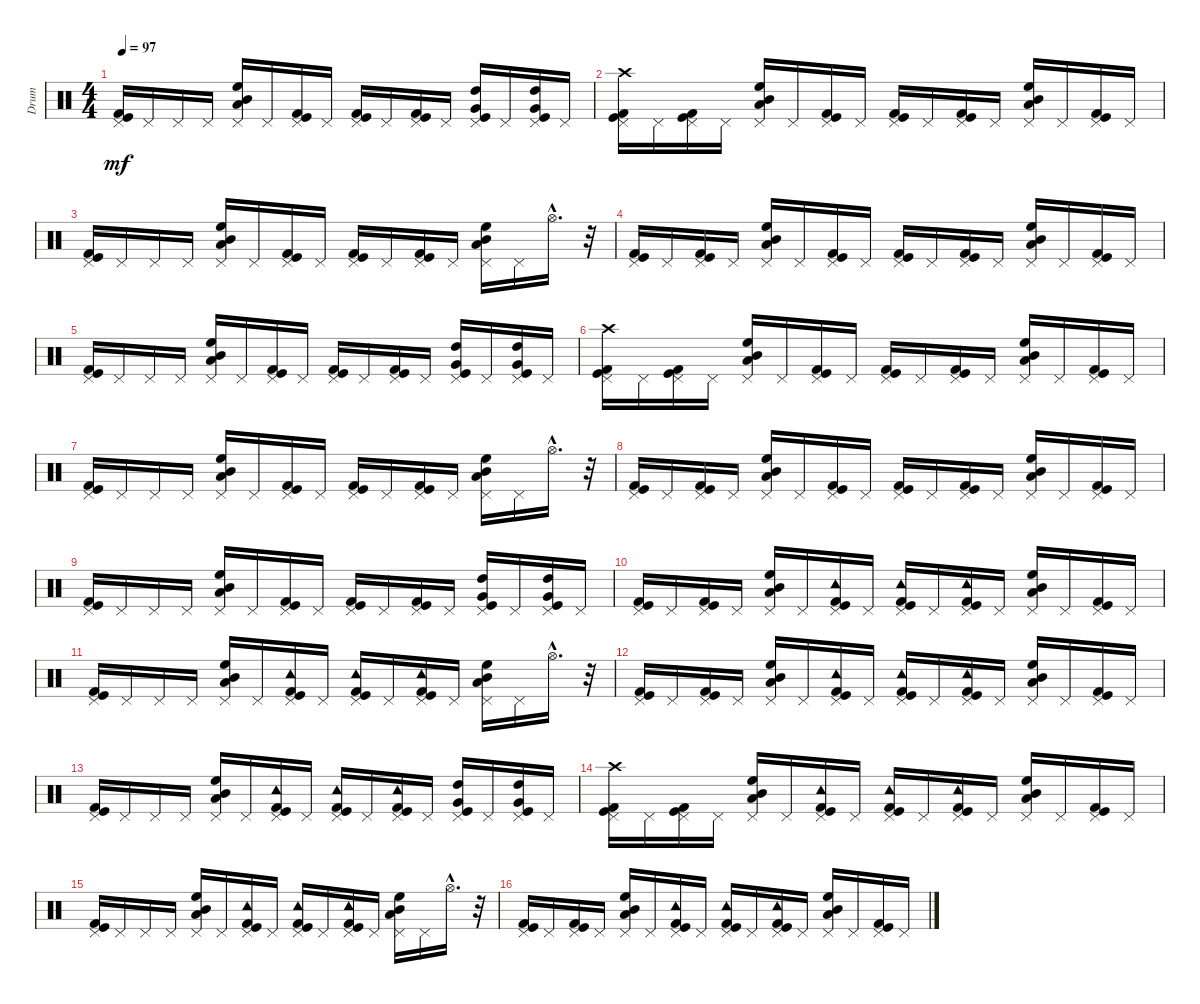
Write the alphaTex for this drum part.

\track ("Drum" "Drum") {instrument percussion}
\staff {score}
\articulation defaults
\ts (4 4)
\tempo 97
\clef neutral
\ks c
("Pedal Hi-Hat (hit)" "Kick (hit)" "Kick (hit) 2").16{dy mf} "Pedal Hi-Hat (hit)".16 "Pedal Hi-Hat (hit)".16 "Pedal Hi-Hat (hit)".16 ("Pedal Hi-Hat (hit)" "High Floor Tom (hit)" "Mid Tom (hit)" "Low Tom (hit)").16 "Pedal Hi-Hat (hit)".16 ("Pedal Hi-Hat (hit)" "Kick (hit)" "Kick (hit) 2").16 "Pedal Hi-Hat (hit)".16 ("Pedal Hi-Hat (hit)" "Kick (hit)" "Kick (hit) 2").16 "Pedal Hi-Hat (hit)".16 ("Pedal Hi-Hat (hit)" "Kick (hit)" "Kick (hit) 2").16 "Pedal Hi-Hat (hit)".16 ("Kick (hit)" "Very Low Tom (hit)" "High Tom (hit)" "Pedal Hi-Hat (hit)").16 "Pedal Hi-Hat (hit)".16 ("Kick (hit)" "Very Low Tom (hit)" "High Tom (hit)" "Pedal Hi-Hat (hit)").16 "Pedal Hi-Hat (hit)".16 |
("Crash high (hit)" "Kick (hit) 2" "Kick (hit)" "Pedal Hi-Hat (hit)").16 "Pedal Hi-Hat (hit)".16 ("Kick (hit) 2" "Kick (hit)" "Pedal Hi-Hat (hit)").16 "Pedal Hi-Hat (hit)".16 ("Low Tom (hit)" "Mid Tom (hit)" "High Floor Tom (hit)" "Pedal Hi-Hat (hit)").16 "Pedal Hi-Hat (hit)".16 ("Kick (hit) 2" "Kick (hit)" "Pedal Hi-Hat (hit)").16 "Pedal Hi-Hat (hit)".16 ("Kick (hit) 2" "Kick (hit)" "Pedal Hi-Hat (hit)").16 "Pedal Hi-Hat (hit)".16 ("Kick (hit) 2" "Kick (hit)" "Pedal Hi-Hat (hit)").16 "Pedal Hi-Hat (hit)".16 ("Low Tom (hit)" "High Floor Tom (hit)" "Mid Tom (hit)" "Pedal Hi-Hat (hit)").16 "Pedal Hi-Hat (hit)".16 ("Kick (hit)" "Kick (hit) 2" "Pedal Hi-Hat (hit)").16 "Pedal Hi-Hat (hit)".16 |
("Pedal Hi-Hat (hit)" "Kick (hit)" "Kick (hit) 2").16 "Pedal Hi-Hat (hit)".16 "Pedal Hi-Hat (hit)".16 "Pedal Hi-Hat (hit)".16 ("Pedal Hi-Hat (hit)" "High Floor Tom (hit)" "Mid Tom (hit)" "Low Tom (hit)").16 "Pedal Hi-Hat (hit)".16 ("Pedal Hi-Hat (hit)" "Kick (hit)" "Kick (hit) 2").16 "Pedal Hi-Hat (hit)".16 ("Pedal Hi-Hat (hit)" "Kick (hit)" "Kick (hit) 2").16 "Pedal Hi-Hat (hit)".16 ("Pedal Hi-Hat (hit)" "Kick (hit)" "Kick (hit) 2").16 "Pedal Hi-Hat (hit)".16 ("Pedal Hi-Hat (hit)" "Mid Tom (hit)" "High Floor Tom (hit)" "Low Tom (hit)").16 "Pedal Hi-Hat (hit)".16 "Hi-Hat (open)"{hac}.16{d} r.32 |
("Pedal Hi-Hat (hit)" "Kick (hit)" "Kick (hit) 2").16 "Pedal Hi-Hat (hit)".16 ("Pedal Hi-Hat (hit)" "Kick (hit)" "Kick (hit) 2").16 "Pedal Hi-Hat (hit)".16 ("Pedal Hi-Hat (hit)" "High Floor Tom (hit)" "Mid Tom (hit)" "Low Tom (hit)").16 "Pedal Hi-Hat (hit)".16 ("Pedal Hi-Hat (hit)" "Kick (hit)" "Kick (hit) 2").16 "Pedal Hi-Hat (hit)".16 ("Pedal Hi-Hat (hit)" "Kick (hit)" "Kick (hit) 2").16 "Pedal Hi-Hat (hit)".16 ("Pedal Hi-Hat (hit)" "Kick (hit)" "Kick (hit) 2").16 "Pedal Hi-Hat (hit)".16 ("Pedal Hi-Hat (hit)" "Mid Tom (hit)" "High Floor Tom (hit)" "Low Tom (hit)").16 "Pedal Hi-Hat (hit)".16 ("Pedal Hi-Hat (hit)" "Kick (hit) 2" "Kick (hit)").16 "Pedal Hi-Hat (hit)".16 |
("Kick (hit) 2" "Kick (hit)" "Pedal Hi-Hat (hit)").16 "Pedal Hi-Hat (hit)".16 "Pedal Hi-Hat (hit)".16 "Pedal Hi-Hat (hit)".16 ("Low Tom (hit)" "Mid Tom (hit)" "High Floor Tom (hit)" "Pedal Hi-Hat (hit)").16 "Pedal Hi-Hat (hit)".16 ("Kick (hit) 2" "Kick (hit)" "Pedal Hi-Hat (hit)").16 "Pedal Hi-Hat (hit)".16 ("Kick (hit) 2" "Kick (hit)" "Pedal Hi-Hat (hit)").16 "Pedal Hi-Hat (hit)".16 ("Kick (hit) 2" "Kick (hit)" "Pedal Hi-Hat (hit)").16 "Pedal Hi-Hat (hit)".16 ("Pedal Hi-Hat (hit)" "High Tom (hit)" "Very Low Tom (hit)" "Kick (hit)").16 "Pedal Hi-Hat (hit)".16 ("Pedal Hi-Hat (hit)" "High Tom (hit)" "Very Low Tom (hit)" "Kick (hit)").16 "Pedal Hi-Hat (hit)".16 |
("Kick (hit) 2" "Kick (hit)" "Pedal Hi-Hat (hit)" "Crash high (hit)").16 "Pedal Hi-Hat (hit)".16 ("Kick (hit) 2" "Kick (hit)" "Pedal Hi-Hat (hit)").16 "Pedal Hi-Hat (hit)".16 ("Low Tom (hit)" "Mid Tom (hit)" "High Floor Tom (hit)" "Pedal Hi-Hat (hit)").16 "Pedal Hi-Hat (hit)".16 ("Kick (hit) 2" "Kick (hit)" "Pedal Hi-Hat (hit)").16 "Pedal Hi-Hat (hit)".16 ("Kick (hit) 2" "Kick (hit)" "Pedal Hi-Hat (hit)").16 "Pedal Hi-Hat (hit)".16 ("Kick (hit) 2" "Kick (hit)" "Pedal Hi-Hat (hit)").16 "Pedal Hi-Hat (hit)".16 ("Low Tom (hit)" "High Floor Tom (hit)" "Mid Tom (hit)" "Pedal Hi-Hat (hit)").16 "Pedal Hi-Hat (hit)".16 ("Kick (hit)" "Kick (hit) 2" "Pedal Hi-Hat (hit)").16 "Pedal Hi-Hat (hit)".16 |
("Pedal Hi-Hat (hit)" "Kick (hit)" "Kick (hit) 2").16 "Pedal Hi-Hat (hit)".16 "Pedal Hi-Hat (hit)".16 "Pedal Hi-Hat (hit)".16 ("Pedal Hi-Hat (hit)" "High Floor Tom (hit)" "Mid Tom (hit)" "Low Tom (hit)").16 "Pedal Hi-Hat (hit)".16 ("Pedal Hi-Hat (hit)" "Kick (hit)" "Kick (hit) 2").16 "Pedal Hi-Hat (hit)".16 ("Pedal Hi-Hat (hit)" "Kick (hit)" "Kick (hit) 2").16 "Pedal Hi-Hat (hit)".16 ("Pedal Hi-Hat (hit)" "Kick (hit)" "Kick (hit) 2").16 "Pedal Hi-Hat (hit)".16 ("Pedal Hi-Hat (hit)" "Mid Tom (hit)" "High Floor Tom (hit)" "Low Tom (hit)").16 "Pedal Hi-Hat (hit)".16 "Hi-Hat (open)"{hac}.16{d} r.32 |
("Pedal Hi-Hat (hit)" "Kick (hit)" "Kick (hit) 2").16 "Pedal Hi-Hat (hit)".16 ("Pedal Hi-Hat (hit)" "Kick (hit)" "Kick (hit) 2").16 "Pedal Hi-Hat (hit)".16 ("Pedal Hi-Hat (hit)" "High Floor Tom (hit)" "Mid Tom (hit)" "Low Tom (hit)").16 "Pedal Hi-Hat (hit)".16 ("Pedal Hi-Hat (hit)" "Kick (hit)" "Kick (hit) 2").16 "Pedal Hi-Hat (hit)".16 ("Pedal Hi-Hat (hit)" "Kick (hit)" "Kick (hit) 2").16 "Pedal Hi-Hat (hit)".16 ("Pedal Hi-Hat (hit)" "Kick (hit)" "Kick (hit) 2").16 "Pedal Hi-Hat (hit)".16 ("Pedal Hi-Hat (hit)" "Mid Tom (hit)" "High Floor Tom (hit)" "Low Tom (hit)").16 "Pedal Hi-Hat (hit)".16 ("Pedal Hi-Hat (hit)" "Kick (hit) 2" "Kick (hit)").16 "Pedal Hi-Hat (hit)".16 |
("Kick (hit) 2" "Kick (hit)" "Pedal Hi-Hat (hit)").16 "Pedal Hi-Hat (hit)".16 "Pedal Hi-Hat (hit)".16 "Pedal Hi-Hat (hit)".16 ("Low Tom (hit)" "Mid Tom (hit)" "High Floor Tom (hit)" "Pedal Hi-Hat (hit)").16 "Pedal Hi-Hat (hit)".16 ("Kick (hit) 2" "Kick (hit)" "Pedal Hi-Hat (hit)").16 "Pedal Hi-Hat (hit)".16 ("Kick (hit) 2" "Kick (hit)" "Pedal Hi-Hat (hit)").16 "Pedal Hi-Hat (hit)".16 ("Kick (hit) 2" "Kick (hit)" "Pedal Hi-Hat (hit)").16 "Pedal Hi-Hat (hit)".16 ("Pedal Hi-Hat (hit)" "High Tom (hit)" "Very Low Tom (hit)" "Kick (hit)").16 "Pedal Hi-Hat (hit)".16 ("Pedal Hi-Hat (hit)" "High Tom (hit)" "Very Low Tom (hit)" "Kick (hit)").16 "Pedal Hi-Hat (hit)".16 |
("Kick (hit) 2" "Kick (hit)" "Pedal Hi-Hat (hit)").16 "Pedal Hi-Hat (hit)".16 ("Kick (hit) 2" "Kick (hit)" "Pedal Hi-Hat (hit)").16 "Pedal Hi-Hat (hit)".16 ("Low Tom (hit)" "Mid Tom (hit)" "High Floor Tom (hit)" "Pedal Hi-Hat (hit)").16 "Pedal Hi-Hat (hit)".16 ("Tambourine (hit)" "Kick (hit) 2" "Kick (hit)" "Pedal Hi-Hat (hit)").16 "Pedal Hi-Hat (hit)".16 ("Tambourine (hit)" "Kick (hit) 2" "Kick (hit)" "Pedal Hi-Hat (hit)").16 "Pedal Hi-Hat (hit)".16 ("Tambourine (hit)" "Kick (hit) 2" "Kick (hit)" "Pedal Hi-Hat (hit)").16 "Pedal Hi-Hat (hit)".16 ("Low Tom (hit)" "High Floor Tom (hit)" "Mid Tom (hit)" "Pedal Hi-Hat (hit)").16 "Pedal Hi-Hat (hit)".16 ("Kick (hit)" "Kick (hit) 2" "Pedal Hi-Hat (hit)").16 "Pedal Hi-Hat (hit)".16 |
("Pedal Hi-Hat (hit)" "Kick (hit)" "Kick (hit) 2").16 "Pedal Hi-Hat (hit)".16 "Pedal Hi-Hat (hit)".16 "Pedal Hi-Hat (hit)".16 ("Pedal Hi-Hat (hit)" "High Floor Tom (hit)" "Mid Tom (hit)" "Low Tom (hit)").16 "Pedal Hi-Hat (hit)".16 ("Tambourine (hit)" "Pedal Hi-Hat (hit)" "Kick (hit)" "Kick (hit) 2").16 "Pedal Hi-Hat (hit)".16 ("Tambourine (hit)" "Pedal Hi-Hat (hit)" "Kick (hit)" "Kick (hit) 2").16 "Pedal Hi-Hat (hit)".16 ("Tambourine (hit)" "Pedal Hi-Hat (hit)" "Kick (hit)" "Kick (hit) 2").16 "Pedal Hi-Hat (hit)".16 ("Pedal Hi-Hat (hit)" "Mid Tom (hit)" "High Floor Tom (hit)" "Low Tom (hit)").16 "Pedal Hi-Hat (hit)".16 "Hi-Hat (open)"{hac}.16{d} r.32 |
("Pedal Hi-Hat (hit)" "Kick (hit)" "Kick (hit) 2").16 "Pedal Hi-Hat (hit)".16 ("Pedal Hi-Hat (hit)" "Kick (hit)" "Kick (hit) 2").16 "Pedal Hi-Hat (hit)".16 ("Pedal Hi-Hat (hit)" "High Floor Tom (hit)" "Mid Tom (hit)" "Low Tom (hit)").16 "Pedal Hi-Hat (hit)".16 ("Pedal Hi-Hat (hit)" "Kick (hit)" "Kick (hit) 2" "Tambourine (hit)").16 "Pedal Hi-Hat (hit)".16 ("Pedal Hi-Hat (hit)" "Kick (hit)" "Kick (hit) 2" "Tambourine (hit)").16 "Pedal Hi-Hat (hit)".16 ("Pedal Hi-Hat (hit)" "Kick (hit)" "Kick (hit) 2" "Tambourine (hit)").16 "Pedal Hi-Hat (hit)".16 ("Pedal Hi-Hat (hit)" "Mid Tom (hit)" "High Floor Tom (hit)" "Low Tom (hit)").16 "Pedal Hi-Hat (hit)".16 ("Pedal Hi-Hat (hit)" "Kick (hit) 2" "Kick (hit)").16 "Pedal Hi-Hat (hit)".16 |
("Kick (hit) 2" "Kick (hit)" "Pedal Hi-Hat (hit)").16 "Pedal Hi-Hat (hit)".16 "Pedal Hi-Hat (hit)".16 "Pedal Hi-Hat (hit)".16 ("Low Tom (hit)" "Mid Tom (hit)" "High Floor Tom (hit)" "Pedal Hi-Hat (hit)").16 "Pedal Hi-Hat (hit)".16 ("Kick (hit) 2" "Kick (hit)" "Pedal Hi-Hat (hit)" "Tambourine (hit)").16 "Pedal Hi-Hat (hit)".16 ("Kick (hit) 2" "Kick (hit)" "Pedal Hi-Hat (hit)" "Tambourine (hit)").16 "Pedal Hi-Hat (hit)".16 ("Kick (hit) 2" "Kick (hit)" "Pedal Hi-Hat (hit)" "Tambourine (hit)").16 "Pedal Hi-Hat (hit)".16 ("Pedal Hi-Hat (hit)" "High Tom (hit)" "Very Low Tom (hit)" "Kick (hit)").16 "Pedal Hi-Hat (hit)".16 ("Pedal Hi-Hat (hit)" "High Tom (hit)" "Very Low Tom (hit)" "Kick (hit)").16 "Pedal Hi-Hat (hit)".16 |
("Kick (hit) 2" "Kick (hit)" "Pedal Hi-Hat (hit)" "Crash high (hit)").16 "Pedal Hi-Hat (hit)".16 ("Kick (hit) 2" "Kick (hit)" "Pedal Hi-Hat (hit)").16 "Pedal Hi-Hat (hit)".16 ("Low Tom (hit)" "Mid Tom (hit)" "High Floor Tom (hit)" "Pedal Hi-Hat (hit)").16 "Pedal Hi-Hat (hit)".16 ("Tambourine (hit)" "Kick (hit) 2" "Kick (hit)" "Pedal Hi-Hat (hit)").16 "Pedal Hi-Hat (hit)".16 ("Tambourine (hit)" "Kick (hit) 2" "Kick (hit)" "Pedal Hi-Hat (hit)").16 "Pedal Hi-Hat (hit)".16 ("Tambourine (hit)" "Kick (hit) 2" "Kick (hit)" "Pedal Hi-Hat (hit)").16 "Pedal Hi-Hat (hit)".16 ("Low Tom (hit)" "High Floor Tom (hit)" "Mid Tom (hit)" "Pedal Hi-Hat (hit)").16 "Pedal Hi-Hat (hit)".16 ("Kick (hit)" "Kick (hit) 2" "Pedal Hi-Hat (hit)").16 "Pedal Hi-Hat (hit)".16 |
("Pedal Hi-Hat (hit)" "Kick (hit)" "Kick (hit) 2").16 "Pedal Hi-Hat (hit)".16 "Pedal Hi-Hat (hit)".16 "Pedal Hi-Hat (hit)".16 ("Pedal Hi-Hat (hit)" "High Floor Tom (hit)" "Mid Tom (hit)" "Low Tom (hit)").16 "Pedal Hi-Hat (hit)".16 ("Tambourine (hit)" "Pedal Hi-Hat (hit)" "Kick (hit)" "Kick (hit) 2").16 "Pedal Hi-Hat (hit)".16 ("Tambourine (hit)" "Pedal Hi-Hat (hit)" "Kick (hit)" "Kick (hit) 2").16 "Pedal Hi-Hat (hit)".16 ("Tambourine (hit)" "Pedal Hi-Hat (hit)" "Kick (hit)" "Kick (hit) 2").16 "Pedal Hi-Hat (hit)".16 ("Pedal Hi-Hat (hit)" "Mid Tom (hit)" "High Floor Tom (hit)" "Low Tom (hit)").16 "Pedal Hi-Hat (hit)".16 "Hi-Hat (open)"{hac}.16{d} r.32 |
("Pedal Hi-Hat (hit)" "Kick (hit)" "Kick (hit) 2").16 "Pedal Hi-Hat (hit)".16 ("Pedal Hi-Hat (hit)" "Kick (hit)" "Kick (hit) 2").16 "Pedal Hi-Hat (hit)".16 ("Pedal Hi-Hat (hit)" "High Floor Tom (hit)" "Mid Tom (hit)" "Low Tom (hit)").16 "Pedal Hi-Hat (hit)".16 ("Pedal Hi-Hat (hit)" "Kick (hit)" "Kick (hit) 2" "Tambourine (hit)").16 "Pedal Hi-Hat (hit)".16 ("Pedal Hi-Hat (hit)" "Kick (hit)" "Kick (hit) 2" "Tambourine (hit)").16 "Pedal Hi-Hat (hit)".16 ("Pedal Hi-Hat (hit)" "Kick (hit)" "Kick (hit) 2" "Tambourine (hit)").16 "Pedal Hi-Hat (hit)".16 ("Pedal Hi-Hat (hit)" "Mid Tom (hit)" "High Floor Tom (hit)" "Low Tom (hit)").16 "Pedal Hi-Hat (hit)".16 ("Pedal Hi-Hat (hit)" "Kick (hit) 2" "Kick (hit)").16 "Pedal Hi-Hat (hit)".16
